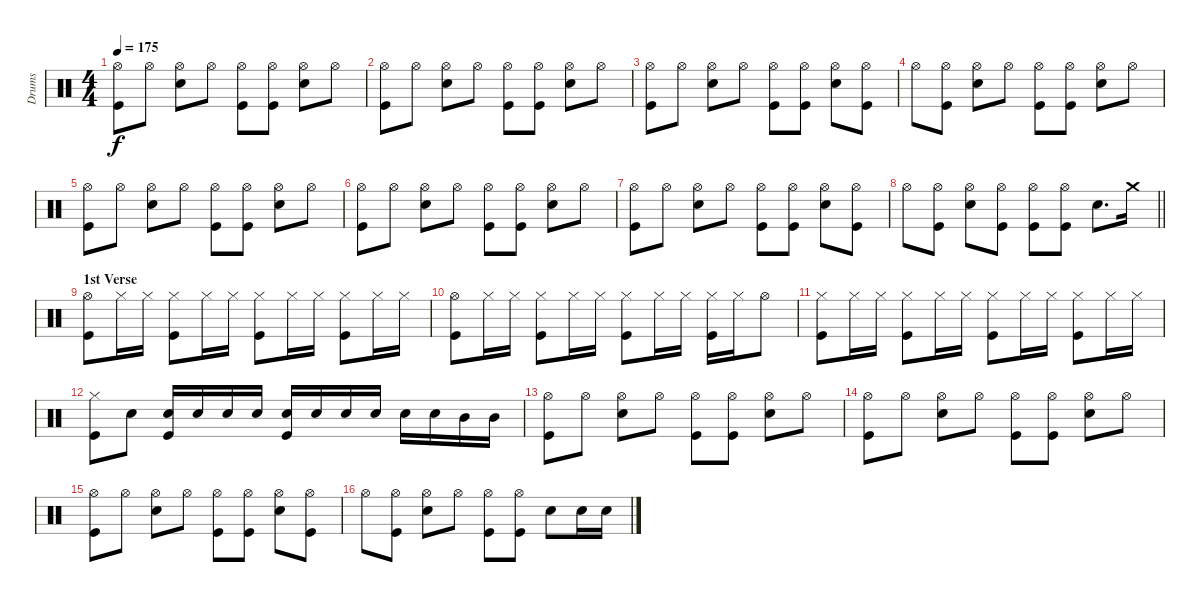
\track ("Drums" "Drums") {instrument percussion}
\staff {score}
\articulation defaults
\ts (4 4)
\tempo 175
\clef neutral
\ks c
("Hi-Hat (open)" "Kick (hit)").8{dy f} "Hi-Hat (open)".8 ("Hi-Hat (open)" "Snare (hit) 2").8 "Hi-Hat (open)".8 ("Hi-Hat (open)" "Kick (hit)").8 ("Hi-Hat (open)" "Kick (hit)").8 ("Hi-Hat (open)" "Snare (hit) 2").8 "Hi-Hat (open)".8 |
("Hi-Hat (open)" "Kick (hit)").8 "Hi-Hat (open)".8 ("Hi-Hat (open)" "Snare (hit) 2").8 "Hi-Hat (open)".8 ("Hi-Hat (open)" "Kick (hit)").8 ("Hi-Hat (open)" "Kick (hit)").8 ("Hi-Hat (open)" "Snare (hit) 2").8 "Hi-Hat (open)".8 |
("Hi-Hat (open)" "Kick (hit)").8 "Hi-Hat (open)".8 ("Hi-Hat (open)" "Snare (hit) 2").8 "Hi-Hat (open)".8 ("Hi-Hat (open)" "Kick (hit)").8 ("Hi-Hat (open)" "Kick (hit)").8 ("Hi-Hat (open)" "Snare (hit) 2").8 ("Hi-Hat (open)" "Kick (hit)").8 |
"Hi-Hat (open)".8 ("Hi-Hat (open)" "Kick (hit)").8 ("Hi-Hat (open)" "Snare (hit) 2").8 "Hi-Hat (open)".8 ("Hi-Hat (open)" "Kick (hit)").8 ("Hi-Hat (open)" "Kick (hit)").8 ("Hi-Hat (open)" "Snare (hit) 2").8 "Hi-Hat (open)".8 |
("Hi-Hat (open)" "Kick (hit)").8 "Hi-Hat (open)".8 ("Hi-Hat (open)" "Snare (hit) 2").8 "Hi-Hat (open)".8 ("Hi-Hat (open)" "Kick (hit)").8 ("Hi-Hat (open)" "Kick (hit)").8 ("Hi-Hat (open)" "Snare (hit) 2").8 "Hi-Hat (open)".8 |
("Hi-Hat (open)" "Kick (hit)").8 "Hi-Hat (open)".8 ("Hi-Hat (open)" "Snare (hit) 2").8 "Hi-Hat (open)".8 ("Hi-Hat (open)" "Kick (hit)").8 ("Hi-Hat (open)" "Kick (hit)").8 ("Hi-Hat (open)" "Snare (hit) 2").8 "Hi-Hat (open)".8 |
("Hi-Hat (open)" "Kick (hit)").8 "Hi-Hat (open)".8 ("Hi-Hat (open)" "Snare (hit) 2").8 "Hi-Hat (open)".8 ("Hi-Hat (open)" "Kick (hit)").8 ("Hi-Hat (open)" "Kick (hit)").8 ("Hi-Hat (open)" "Snare (hit) 2").8 ("Hi-Hat (open)" "Kick (hit)").8 |
\barLineRight lightlight "Hi-Hat (open)".8
("Hi-Hat (open)" "Kick (hit)").8 ("Hi-Hat (open)" "Snare (hit) 2").8 ("Hi-Hat (open)" "Kick (hit)").8 ("Hi-Hat (open)" "Kick (hit)").8 ("Hi-Hat (open)" "Kick (hit)").8 "Snare (hit) 2".8{d} "Crash medium (hit)".16 |
\section ("" "1st Verse")
("Hi-Hat (open)" "Kick (hit)").8 "Hi-Hat (closed)".16 "Hi-Hat (closed)".16 ("Hi-Hat (closed)" "Kick (hit)").8 "Hi-Hat (closed)".16 "Hi-Hat (closed)".16 ("Hi-Hat (closed)" "Kick (hit)").8 "Hi-Hat (closed)".16 "Hi-Hat (closed)".16 ("Hi-Hat (closed)" "Kick (hit)").8 "Hi-Hat (closed)".16 "Hi-Hat (closed)".16 |
("Hi-Hat (open)" "Kick (hit)").8 "Hi-Hat (closed)".16 "Hi-Hat (closed)".16 ("Hi-Hat (closed)" "Kick (hit)").8 "Hi-Hat (closed)".16 "Hi-Hat (closed)".16 ("Hi-Hat (closed)" "Kick (hit)").8 "Hi-Hat (closed)".16 "Hi-Hat (closed)".16 ("Hi-Hat (closed)" "Kick (hit)").16 "Hi-Hat (closed)".16 "Hi-Hat (open)".8 |
("Hi-Hat (closed)" "Kick (hit)").8 "Hi-Hat (closed)".16 "Hi-Hat (closed)".16 ("Hi-Hat (closed)" "Kick (hit)").8 "Hi-Hat (closed)".16 "Hi-Hat (closed)".16 ("Hi-Hat (closed)" "Kick (hit)").8 "Hi-Hat (closed)".16 "Hi-Hat (closed)".16 ("Hi-Hat (closed)" "Kick (hit)").8 "Hi-Hat (closed)".16 "Hi-Hat (closed)".16 |
("Hi-Hat (closed)" "Kick (hit)").8 "Snare (hit) 2".8 ("Snare (hit) 2" "Kick (hit)").16 "Snare (hit) 2".16 "Snare (hit) 2".16 "Snare (hit) 2".16 ("Snare (hit) 2" "Kick (hit)").16 "Snare (hit) 2".16 "Snare (hit) 2".16 "Snare (hit) 2".16 "Snare (hit) 2".16 "Snare (hit) 2".16 "Mid Tom (hit)".16 "Mid Tom (hit)".16 |
("Hi-Hat (open)" "Kick (hit)").8 "Hi-Hat (open)".8 ("Hi-Hat (open)" "Snare (hit) 2").8 "Hi-Hat (open)".8 ("Hi-Hat (open)" "Kick (hit)").8 ("Hi-Hat (open)" "Kick (hit)").8 ("Hi-Hat (open)" "Snare (hit) 2").8 "Hi-Hat (open)".8 |
("Hi-Hat (open)" "Kick (hit)").8 "Hi-Hat (open)".8 ("Hi-Hat (open)" "Snare (hit) 2").8 "Hi-Hat (open)".8 ("Hi-Hat (open)" "Kick (hit)").8 ("Hi-Hat (open)" "Kick (hit)").8 ("Hi-Hat (open)" "Snare (hit) 2").8 "Hi-Hat (open)".8 |
("Hi-Hat (open)" "Kick (hit)").8 "Hi-Hat (open)".8 ("Hi-Hat (open)" "Snare (hit) 2").8 "Hi-Hat (open)".8 ("Hi-Hat (open)" "Kick (hit)").8 ("Hi-Hat (open)" "Kick (hit)").8 ("Hi-Hat (open)" "Snare (hit) 2").8 ("Hi-Hat (open)" "Kick (hit)").8 |
"Hi-Hat (open)".8 ("Hi-Hat (open)" "Kick (hit)").8 ("Hi-Hat (open)" "Snare (hit) 2").8 "Hi-Hat (open)".8 ("Hi-Hat (open)" "Kick (hit)").8 ("Hi-Hat (open)" "Kick (hit)").8 "Snare (hit) 2".8 "Snare (hit) 2".16 "Snare (hit) 2".16
